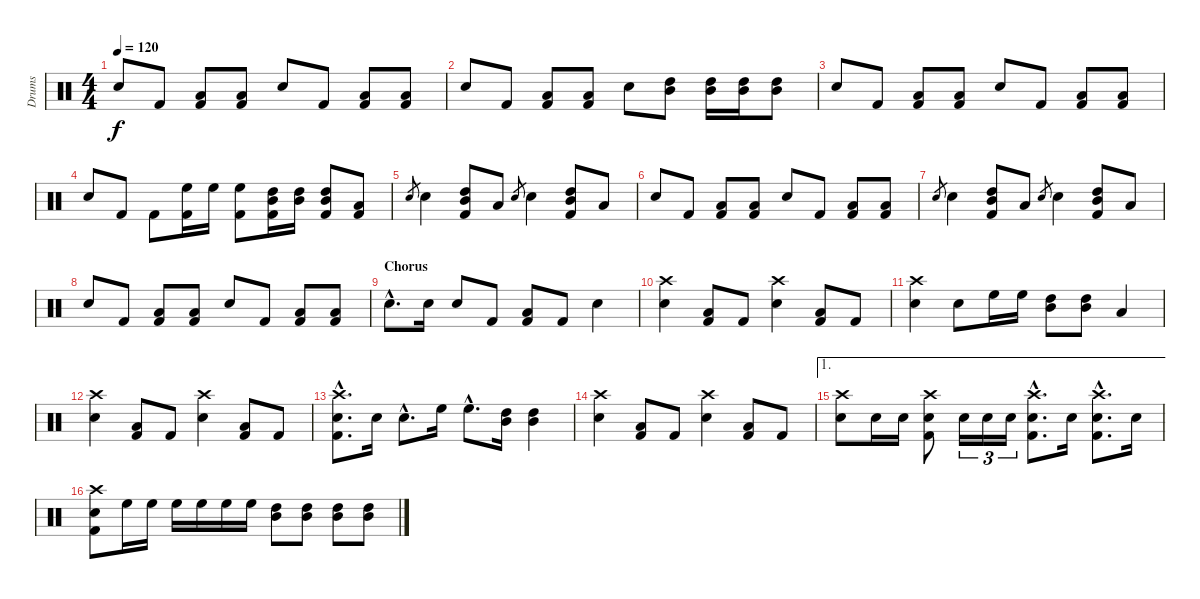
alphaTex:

\track ("Drums" "Drums") {instrument percussion}
\staff {score}
\articulation defaults
\ts (4 4)
\tempo 120
\clef neutral
\ks c "Snare (hit) 2".8{dy f} "Kick (hit) 2".8
("Low Tom (hit)" "Kick (hit) 2").8 ("Low Tom (hit)" "Kick (hit) 2").8 "Snare (hit) 2".8 "Kick (hit) 2".8 ("Low Tom (hit)" "Kick (hit) 2").8 ("Low Tom (hit)" "Kick (hit) 2").8 |
"Snare (hit) 2".8 "Kick (hit) 2".8 ("Low Tom (hit)" "Kick (hit) 2").8 ("Low Tom (hit)" "Kick (hit) 2").8 "Snare (hit) 2".8 ("High Tom (hit)" "Mid Tom (hit)").8 ("High Tom (hit)" "Mid Tom (hit)").16 ("High Tom (hit)" "Mid Tom (hit)").16 ("High Tom (hit)" "Mid Tom (hit)").8 |
"Snare (hit) 2".8 "Kick (hit) 2".8 ("Low Tom (hit)" "Kick (hit) 2").8 ("Low Tom (hit)" "Kick (hit) 2").8 "Snare (hit) 2".8 "Kick (hit) 2".8 ("Low Tom (hit)" "Kick (hit) 2").8 ("Low Tom (hit)" "Kick (hit) 2").8 |
"Snare (hit) 2".8 "Kick (hit) 2".8 "Kick (hit) 2".8 ("High Floor Tom (hit)" "Kick (hit) 2").16 "High Floor Tom (hit)".16 ("High Floor Tom (hit)" "Kick (hit) 2").8 ("High Tom (hit)" "Mid Tom (hit)" "Kick (hit) 2").16 ("High Tom (hit)" "Mid Tom (hit)").16 ("High Tom (hit)" "Mid Tom (hit)" "Kick (hit) 2").8 ("Low Tom (hit)" "Kick (hit) 2").8 |
"Snare (hit) 2".8{gr} "Snare (hit) 2".4 ("High Tom (hit)" "Mid Tom (hit)" "Kick (hit) 2").8 "Low Tom (hit)".8 "Snare (hit) 2".8{gr} "Snare (hit) 2".4 ("High Tom (hit)" "Mid Tom (hit)" "Kick (hit) 2").8 "Low Tom (hit)".8 |
"Snare (hit) 2".8 "Kick (hit) 2".8 ("Low Tom (hit)" "Kick (hit) 2").8 ("Low Tom (hit)" "Kick (hit) 2").8 "Snare (hit) 2".8 "Kick (hit) 2".8 ("Low Tom (hit)" "Kick (hit) 2").8 ("Low Tom (hit)" "Kick (hit) 2").8 |
"Snare (hit) 2".8{gr} "Snare (hit) 2".4 ("High Tom (hit)" "Mid Tom (hit)" "Kick (hit) 2").8 "Low Tom (hit)".8 "Snare (hit) 2".8{gr} "Snare (hit) 2".4 ("High Tom (hit)" "Mid Tom (hit)" "Kick (hit) 2").8 "Low Tom (hit)".8 |
"Snare (hit) 2".8 "Kick (hit) 2".8 ("Low Tom (hit)" "Kick (hit) 2").8 ("Low Tom (hit)" "Kick (hit) 2").8 "Snare (hit) 2".8 "Kick (hit) 2".8 ("Low Tom (hit)" "Kick (hit) 2").8 ("Low Tom (hit)" "Kick (hit) 2").8 |
\section ("" "Chorus")
"Snare (hit) 2"{hac}.8{d} "Snare (hit) 2".16 "Snare (hit) 2".8 "Kick (hit) 2".8 ("Low Tom (hit)" "Kick (hit) 2").8 "Kick (hit) 2".8 "Snare (hit) 2".4 |
("Crash high (hit)" "Snare (hit) 2").4 ("Low Tom (hit)" "Kick (hit) 2").8 "Kick (hit) 2".8 ("Crash high (hit)" "Snare (hit) 2").4 ("Low Tom (hit)" "Kick (hit) 2").8 "Kick (hit) 2".8 |
("Crash high (hit)" "Snare (hit) 2").4 "Snare (hit) 2".8 "High Floor Tom (hit)".16 "High Floor Tom (hit)".16 ("High Tom (hit)" "Mid Tom (hit)").8 ("High Tom (hit)" "Mid Tom (hit)").8 "Low Tom (hit)".4 |
("Crash high (hit)" "Snare (hit) 2").4 ("Low Tom (hit)" "Kick (hit) 2").8 "Kick (hit) 2".8 ("Crash high (hit)" "Snare (hit) 2").4 ("Low Tom (hit)" "Kick (hit) 2").8 "Kick (hit) 2".8 |
("Crash high (hit)"{hac} "Snare (hit) 2"{hac} "Kick (hit) 2"{hac}).8{d} "Snare (hit) 2".16 "Snare (hit) 2"{hac}.8{d} "High Floor Tom (hit)".16 "High Floor Tom (hit)"{hac}.8{d} ("High Tom (hit)" "Mid Tom (hit)").16 ("High Tom (hit)" "Mid Tom (hit)").4 |
("Crash high (hit)" "Snare (hit) 2").4 ("Low Tom (hit)" "Kick (hit) 2").8 "Kick (hit) 2".8 ("Crash high (hit)" "Snare (hit) 2").4 ("Low Tom (hit)" "Kick (hit) 2").8 "Kick (hit) 2".8 |
\ae 1
("Crash high (hit)" "Snare (hit) 2").8 "Snare (hit) 2".16 "Snare (hit) 2".16 ("Crash high (hit)" "Snare (hit) 2" "Kick (hit) 2").8 "Snare (hit) 2".16{tu (3 2)} "Snare (hit) 2".16{tu (3 2)} "Snare (hit) 2".16{tu (3 2)} ("Crash high (hit)"{hac} "Snare (hit) 2"{hac} "Kick (hit) 2"{hac}).8{d} "Snare (hit) 2".16 ("Crash high (hit)"{hac} "Snare (hit) 2"{hac} "Kick (hit) 2"{hac}).8{d} "Snare (hit) 2".16 |
("Crash high (hit)" "Snare (hit) 2" "Kick (hit) 2").8 "High Floor Tom (hit)".16 "High Floor Tom (hit)".16 "High Floor Tom (hit)".16 "High Floor Tom (hit)".16 "High Floor Tom (hit)".16 "High Floor Tom (hit)".16 ("High Tom (hit)" "Mid Tom (hit)").8 ("High Tom (hit)" "Mid Tom (hit)").8 ("High Tom (hit)" "Mid Tom (hit)").8 ("High Tom (hit)" "Mid Tom (hit)").8
